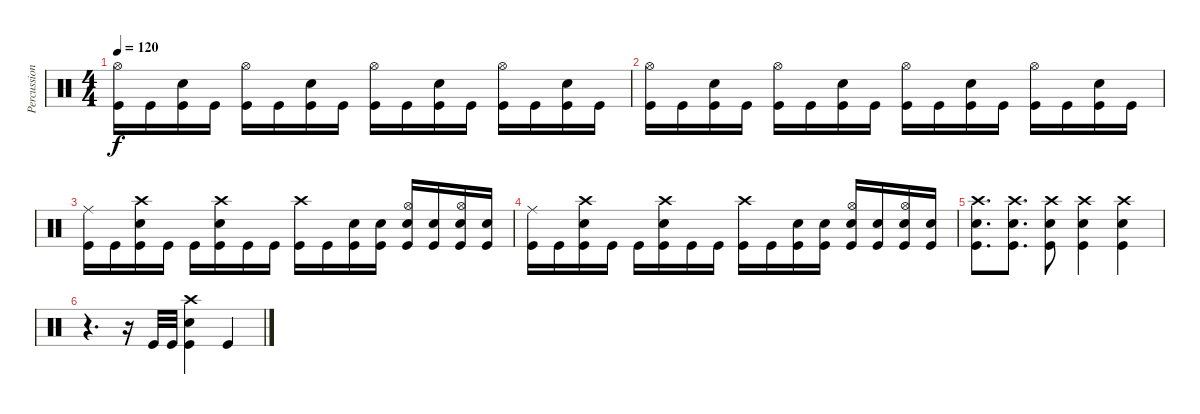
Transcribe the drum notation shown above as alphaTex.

\track ("Percussion" "Percussion") {instrument percussion}
\staff {score}
\articulation defaults
\ts (4 4)
\tempo 120
\clef neutral
\ks c
("Kick (hit)" "Hi-Hat (open)").16{dy f} "Kick (hit)".16 ("Kick (hit)" "Snare (hit) 2").16 "Kick (hit)".16 ("Kick (hit)" "Hi-Hat (open)").16 "Kick (hit)".16 ("Kick (hit)" "Snare (hit) 2").16 "Kick (hit)".16 ("Kick (hit)" "Hi-Hat (open)").16 "Kick (hit)".16 ("Kick (hit)" "Snare (hit) 2").16 "Kick (hit)".16 ("Kick (hit)" "Hi-Hat (open)").16 "Kick (hit)".16 ("Kick (hit)" "Snare (hit) 2").16 "Kick (hit)".16 |
("Kick (hit)" "Hi-Hat (open)").16 "Kick (hit)".16 ("Kick (hit)" "Snare (hit) 2").16 "Kick (hit)".16 ("Kick (hit)" "Hi-Hat (open)").16 "Kick (hit)".16 ("Kick (hit)" "Snare (hit) 2").16 "Kick (hit)".16 ("Kick (hit)" "Hi-Hat (open)").16 "Kick (hit)".16 ("Kick (hit)" "Snare (hit) 2").16 "Kick (hit)".16 ("Kick (hit)" "Hi-Hat (open)").16 "Kick (hit)".16 ("Kick (hit)" "Snare (hit) 2").16 "Kick (hit)".16 |
("Kick (hit)" "Ride (middle)").16 "Kick (hit)".16 ("Snare (hit) 2" "Crash high (hit)" "Kick (hit)").16 "Kick (hit)".16 "Kick (hit)".16 ("Snare (hit) 2" "Crash high (hit)" "Kick (hit)").16 "Kick (hit)".16 "Kick (hit)".16 ("Kick (hit)" "Crash high (hit)").16 "Kick (hit)".16 ("Snare (hit) 2" "Kick (hit)").16 ("Kick (hit)" "Snare (hit) 2").16 ("Kick (hit)" "Snare (hit) 2" "Hi-Hat (open)").16 ("Snare (hit) 2" "Kick (hit)").16 ("Kick (hit)" "Snare (hit) 2" "Hi-Hat (open)").16 ("Kick (hit)" "Snare (hit) 2").16 |
("Kick (hit)" "Ride (middle)").16 "Kick (hit)".16 ("Snare (hit) 2" "Crash high (hit)" "Kick (hit)").16 "Kick (hit)".16 "Kick (hit)".16 ("Snare (hit) 2" "Crash high (hit)" "Kick (hit)").16 "Kick (hit)".16 "Kick (hit)".16 ("Kick (hit)" "Crash high (hit)").16 "Kick (hit)".16 ("Snare (hit) 2" "Kick (hit)").16 ("Kick (hit)" "Snare (hit) 2").16 ("Kick (hit)" "Snare (hit) 2" "Hi-Hat (open)").16 ("Snare (hit) 2" "Kick (hit)").16 ("Kick (hit)" "Snare (hit) 2" "Hi-Hat (open)").16 ("Kick (hit)" "Snare (hit) 2").16 |
("Snare (hit) 2" "Crash high (hit)" "Kick (hit)").8{d} ("Kick (hit)" "Snare (hit) 2" "Crash high (hit)").8{d} ("Kick (hit)" "Snare (hit) 2" "Crash high (hit)").8 ("Kick (hit)" "Snare (hit) 2" "Crash high (hit)").4 ("Kick (hit)" "Snare (hit) 2" "Crash high (hit)").4 |
r.4{d} r.16 "Kick (hit)".32 "Kick (hit)".32 ("Kick (hit)" "Snare (hit) 2" "Crash high (hit)").4 "Kick (hit)".4
